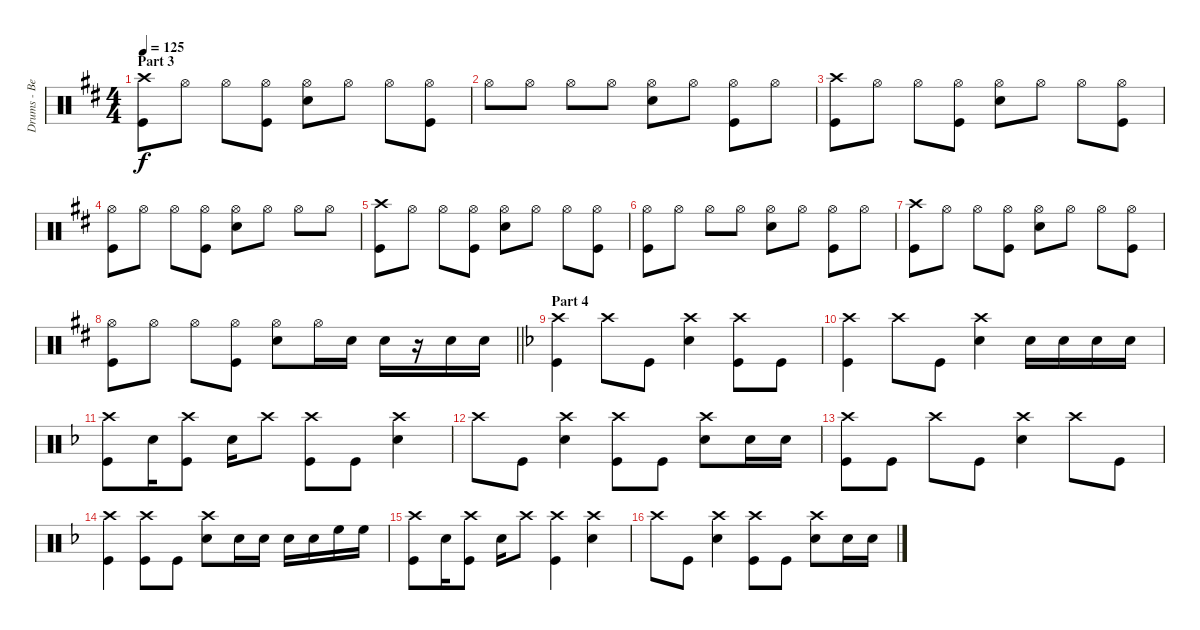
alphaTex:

\track ("Drums - Ben Johnston" "Drums - Be") {instrument percussion}
\staff {score}
\articulation defaults
\ts (4 4)
\section ("" "Part 3")
\tempo 125
\clef neutral
\ks d
("Crash high (hit)" "Kick (hit)").8{dy f} "Hi-Hat (open)".8 "Hi-Hat (open)".8 ("Hi-Hat (open)" "Kick (hit)").8 ("Hi-Hat (open)" "Snare (hit) 2").8 "Hi-Hat (open)".8 "Hi-Hat (open)".8 ("Hi-Hat (open)" "Kick (hit)").8 |
"Hi-Hat (open)".8 "Hi-Hat (open)".8 "Hi-Hat (open)".8 "Hi-Hat (open)".8 ("Hi-Hat (open)" "Snare (hit) 2").8 "Hi-Hat (open)".8 ("Hi-Hat (open)" "Kick (hit)").8 "Hi-Hat (open)".8 |
("Crash high (hit)" "Kick (hit)").8 "Hi-Hat (open)".8 "Hi-Hat (open)".8 ("Hi-Hat (open)" "Kick (hit)").8 ("Hi-Hat (open)" "Snare (hit) 2").8 "Hi-Hat (open)".8 "Hi-Hat (open)".8 ("Hi-Hat (open)" "Kick (hit)").8 |
("Hi-Hat (open)" "Kick (hit)").8 "Hi-Hat (open)".8 "Hi-Hat (open)".8 ("Hi-Hat (open)" "Kick (hit)").8 ("Hi-Hat (open)" "Snare (hit) 2").8 "Hi-Hat (open)".8 "Hi-Hat (open)".8 "Hi-Hat (open)".8 |
("Crash high (hit)" "Kick (hit)").8 "Hi-Hat (open)".8 "Hi-Hat (open)".8 ("Hi-Hat (open)" "Kick (hit)").8 ("Hi-Hat (open)" "Snare (hit) 2").8 "Hi-Hat (open)".8 "Hi-Hat (open)".8 ("Hi-Hat (open)" "Kick (hit)").8 |
("Hi-Hat (open)" "Kick (hit)").8 "Hi-Hat (open)".8 "Hi-Hat (open)".8 "Hi-Hat (open)".8 ("Hi-Hat (open)" "Snare (hit) 2").8 "Hi-Hat (open)".8 ("Hi-Hat (open)" "Kick (hit)").8 "Hi-Hat (open)".8 |
("Crash high (hit)" "Kick (hit)").8 "Hi-Hat (open)".8 "Hi-Hat (open)".8 ("Hi-Hat (open)" "Kick (hit)").8 ("Hi-Hat (open)" "Snare (hit) 2").8 "Hi-Hat (open)".8 "Hi-Hat (open)".8 ("Hi-Hat (open)" "Kick (hit)").8 |
\barLineRight lightlight
("Hi-Hat (open)" "Kick (hit)").8 "Hi-Hat (open)".8 "Hi-Hat (open)".8 ("Hi-Hat (open)" "Kick (hit)").8 ("Hi-Hat (open)" "Snare (hit) 2").8 "Hi-Hat (open)".16 "Snare (hit) 2".16 "Snare (hit) 2".16 r.16 "Snare (hit) 2".16 "Snare (hit) 2".16 |
\section ("" "Part 4")
\ks dminor
("Crash high (hit)" "Kick (hit)").4 "Crash high (hit)".8 "Kick (hit)".8 ("Crash high (hit)" "Snare (hit) 2").4 ("Crash high (hit)" "Kick (hit)").8 "Kick (hit)".8 |
("Crash high (hit)" "Kick (hit)").4 "Crash high (hit)".8 "Kick (hit)".8 ("Crash high (hit)" "Snare (hit) 2").4 "Snare (hit) 2".16 "Snare (hit) 2".16 "Snare (hit) 2".16 "Snare (hit) 2".16 |
("Crash high (hit)" "Kick (hit)").8 "Snare (hit) 2".16 ("Crash high (hit)" "Kick (hit)").8 "Snare (hit) 2".16 "Crash high (hit)".8 ("Crash high (hit)" "Kick (hit)").8 "Kick (hit)".8 ("Crash high (hit)" "Snare (hit) 2").4 |
"Crash high (hit)".8 "Kick (hit)".8 ("Crash high (hit)" "Snare (hit) 2").4 ("Crash high (hit)" "Kick (hit)").8 "Kick (hit)".8 ("Crash high (hit)" "Snare (hit) 2").8 "Snare (hit) 2".16 "Snare (hit) 2".16 |
("Crash high (hit)" "Kick (hit)").8 "Kick (hit)".8 "Crash high (hit)".8 "Kick (hit)".8 ("Crash high (hit)" "Snare (hit) 2").4 "Crash high (hit)".8 "Kick (hit)".8 |
("Crash high (hit)" "Kick (hit)").4 ("Crash high (hit)" "Kick (hit)").8 "Kick (hit)".8 ("Crash high (hit)" "Snare (hit) 2").8 "Snare (hit) 2".16 "Snare (hit) 2".16 "Snare (hit) 2".16 "Snare (hit) 2".16 "High Floor Tom (hit)".16 "High Floor Tom (hit)".16 |
("Crash high (hit)" "Kick (hit)").8 "Snare (hit) 2".16 ("Crash high (hit)" "Kick (hit)").8 "Snare (hit) 2".16 "Crash high (hit)".8 ("Crash high (hit)" "Kick (hit)").4 ("Crash high (hit)" "Snare (hit) 2").4 |
"Crash high (hit)".8 "Kick (hit)".8 ("Crash high (hit)" "Snare (hit) 2").4 ("Crash high (hit)" "Kick (hit)").8 "Kick (hit)".8 ("Crash high (hit)" "Snare (hit) 2").8 "Snare (hit) 2".16 "Snare (hit) 2".16
